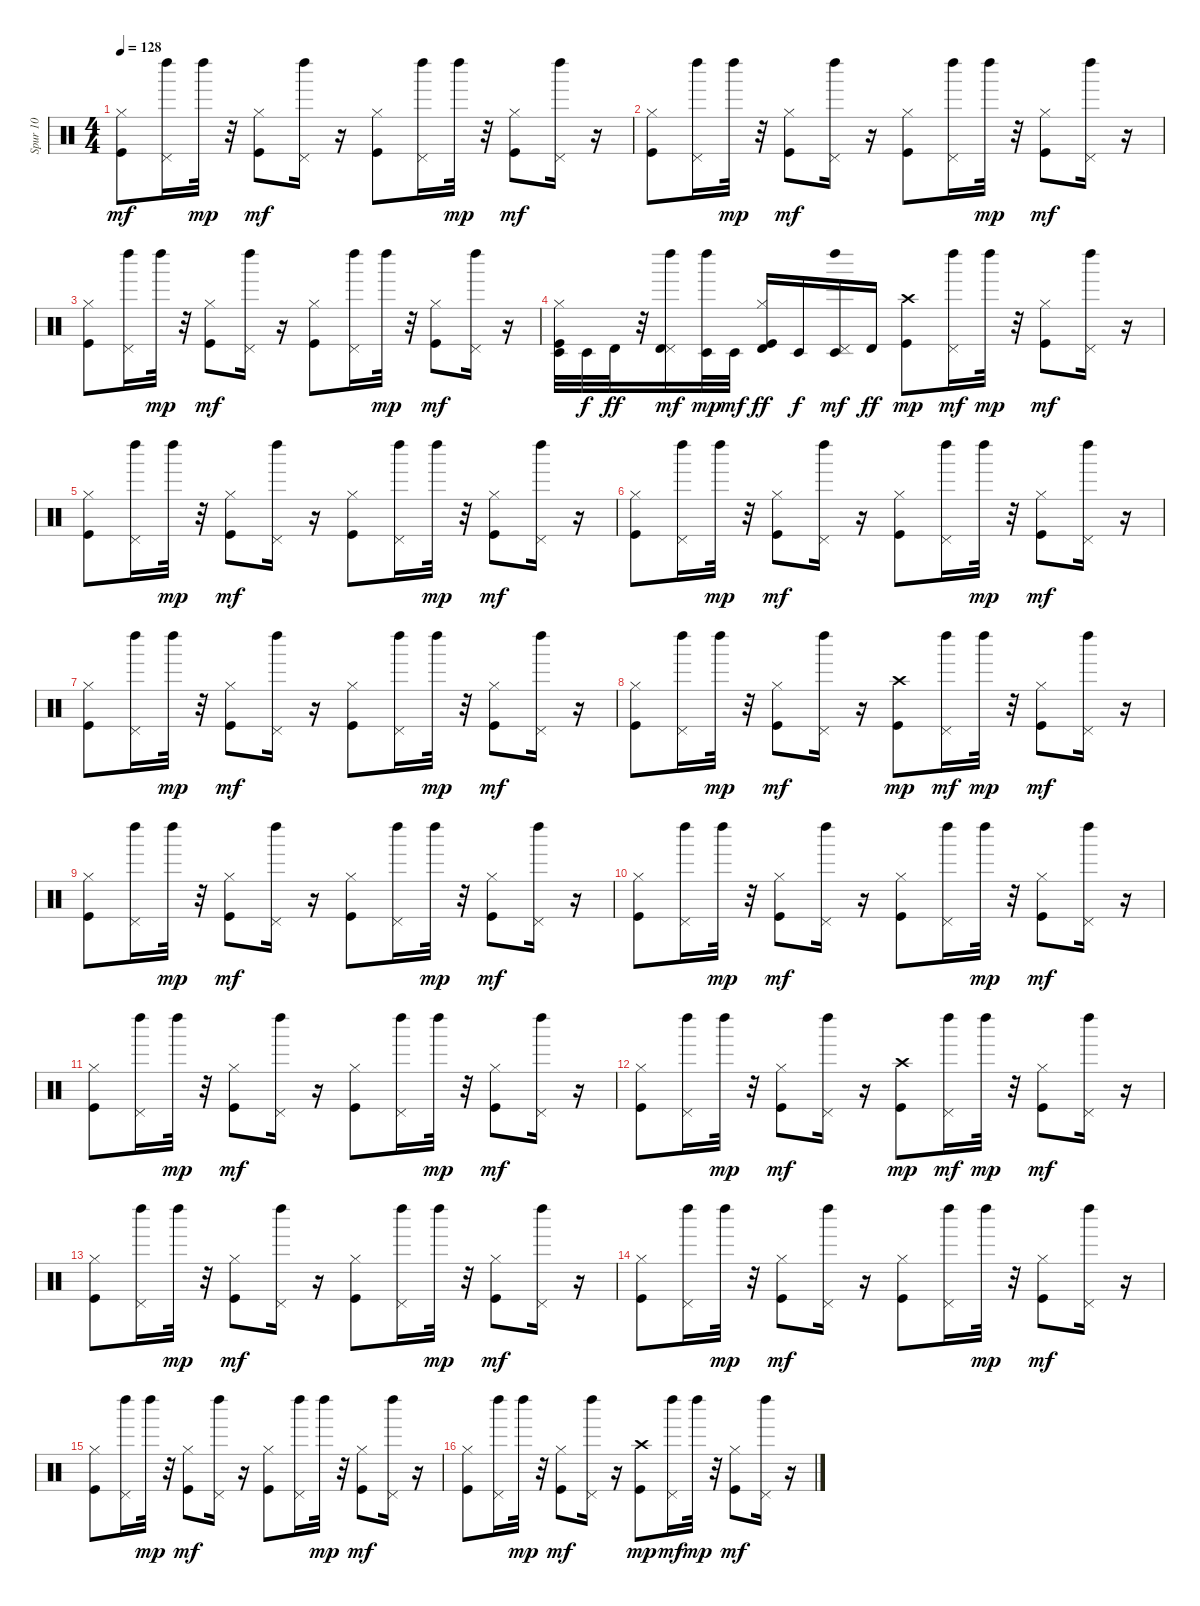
\track ("Spur 10" "Spur 10") {instrument percussion}
\staff {score}
\articulation defaults
\ts (4 4)
\tempo 128
\clef neutral
\ks c
("Kick (hit)" "Hi-Hat (closed)").8{dy mf} ("Pedal Hi-Hat (hit)" "Left Maraca (hit)").16 "Left Maraca (hit)".32{dy mp} r.32 ("Kick (hit)" "Hi-Hat (closed)").8{dy mf} ("Pedal Hi-Hat (hit)" "Left Maraca (hit)").16 r.16 ("Kick (hit)" "Hi-Hat (closed)").8 ("Pedal Hi-Hat (hit)" "Left Maraca (hit)").16 "Left Maraca (hit)".32{dy mp} r.32 ("Kick (hit)" "Hi-Hat (closed)").8{dy mf} ("Pedal Hi-Hat (hit)" "Left Maraca (hit)").16 r.16 |
("Kick (hit)" "Hi-Hat (closed)").8 ("Pedal Hi-Hat (hit)" "Left Maraca (hit)").16 "Left Maraca (hit)".32{dy mp} r.32 ("Kick (hit)" "Hi-Hat (closed)").8{dy mf} ("Pedal Hi-Hat (hit)" "Left Maraca (hit)").16 r.16 ("Kick (hit)" "Hi-Hat (closed)").8 ("Pedal Hi-Hat (hit)" "Left Maraca (hit)").16 "Left Maraca (hit)".32{dy mp} r.32 ("Kick (hit)" "Hi-Hat (closed)").8{dy mf} ("Pedal Hi-Hat (hit)" "Left Maraca (hit)").16 r.16 |
("Kick (hit)" "Hi-Hat (closed)").8 ("Pedal Hi-Hat (hit)" "Left Maraca (hit)").16 "Left Maraca (hit)".32{dy mp} r.32 ("Kick (hit)" "Hi-Hat (closed)").8{dy mf} ("Pedal Hi-Hat (hit)" "Left Maraca (hit)").16 r.16 ("Kick (hit)" "Hi-Hat (closed)").8 ("Pedal Hi-Hat (hit)" "Left Maraca (hit)").16 "Left Maraca (hit)".32{dy mp} r.32 ("Kick (hit)" "Hi-Hat (closed)").8{dy mf} ("Pedal Hi-Hat (hit)" "Left Maraca (hit)").16 r.16 |
("Kick (hit)" "Hi-Hat (closed)" "Timbale low (hit)").32 "Timbale low (hit)".32{dy f} "Timbale high (hit)".32{dy ff} r.32 ("Pedal Hi-Hat (hit)" "Timbale high (hit)" "Left Maraca (hit)").16{dy mf} ("Timbale low (hit)" "Left Maraca (hit)").32{dy mp} "Timbale low (hit)".32{dy mf} ("Kick (hit)" "Hi-Hat (closed)" "Timbale high (hit)").16{dy ff} "Timbale low (hit)".16{dy f} ("Pedal Hi-Hat (hit)" "Timbale low (hit)" "Left Maraca (hit)").16{dy mf} "Timbale high (hit)".16{dy ff} ("Kick (hit)" "Crash high (hit)").8{dy mp} ("Pedal Hi-Hat (hit)" "Left Maraca (hit)").16{dy mf} "Left Maraca (hit)".32{dy mp} r.32 ("Kick (hit)" "Hi-Hat (closed)").8{dy mf} ("Pedal Hi-Hat (hit)" "Left Maraca (hit)").16 r.16 |
("Kick (hit)" "Hi-Hat (closed)").8 ("Pedal Hi-Hat (hit)" "Left Maraca (hit)").16 "Left Maraca (hit)".32{dy mp} r.32 ("Kick (hit)" "Hi-Hat (closed)").8{dy mf} ("Pedal Hi-Hat (hit)" "Left Maraca (hit)").16 r.16 ("Kick (hit)" "Hi-Hat (closed)").8 ("Pedal Hi-Hat (hit)" "Left Maraca (hit)").16 "Left Maraca (hit)".32{dy mp} r.32 ("Kick (hit)" "Hi-Hat (closed)").8{dy mf} ("Pedal Hi-Hat (hit)" "Left Maraca (hit)").16 r.16 |
("Kick (hit)" "Hi-Hat (closed)").8 ("Pedal Hi-Hat (hit)" "Left Maraca (hit)").16 "Left Maraca (hit)".32{dy mp} r.32 ("Kick (hit)" "Hi-Hat (closed)").8{dy mf} ("Pedal Hi-Hat (hit)" "Left Maraca (hit)").16 r.16 ("Kick (hit)" "Hi-Hat (closed)").8 ("Pedal Hi-Hat (hit)" "Left Maraca (hit)").16 "Left Maraca (hit)".32{dy mp} r.32 ("Kick (hit)" "Hi-Hat (closed)").8{dy mf} ("Pedal Hi-Hat (hit)" "Left Maraca (hit)").16 r.16 |
("Kick (hit)" "Hi-Hat (closed)").8 ("Pedal Hi-Hat (hit)" "Left Maraca (hit)").16 "Left Maraca (hit)".32{dy mp} r.32 ("Kick (hit)" "Hi-Hat (closed)").8{dy mf} ("Pedal Hi-Hat (hit)" "Left Maraca (hit)").16 r.16 ("Kick (hit)" "Hi-Hat (closed)").8 ("Pedal Hi-Hat (hit)" "Left Maraca (hit)").16 "Left Maraca (hit)".32{dy mp} r.32 ("Kick (hit)" "Hi-Hat (closed)").8{dy mf} ("Pedal Hi-Hat (hit)" "Left Maraca (hit)").16 r.16 |
("Kick (hit)" "Hi-Hat (closed)").8 ("Pedal Hi-Hat (hit)" "Left Maraca (hit)").16 "Left Maraca (hit)".32{dy mp} r.32 ("Kick (hit)" "Hi-Hat (closed)").8{dy mf} ("Pedal Hi-Hat (hit)" "Left Maraca (hit)").16 r.16 ("Kick (hit)" "Crash high (hit)").8{dy mp} ("Pedal Hi-Hat (hit)" "Left Maraca (hit)").16{dy mf} "Left Maraca (hit)".32{dy mp} r.32 ("Kick (hit)" "Hi-Hat (closed)").8{dy mf} ("Pedal Hi-Hat (hit)" "Left Maraca (hit)").16 r.16 |
("Kick (hit)" "Hi-Hat (closed)").8 ("Pedal Hi-Hat (hit)" "Left Maraca (hit)").16 "Left Maraca (hit)".32{dy mp} r.32 ("Kick (hit)" "Hi-Hat (closed)").8{dy mf} ("Pedal Hi-Hat (hit)" "Left Maraca (hit)").16 r.16 ("Kick (hit)" "Hi-Hat (closed)").8 ("Pedal Hi-Hat (hit)" "Left Maraca (hit)").16 "Left Maraca (hit)".32{dy mp} r.32 ("Kick (hit)" "Hi-Hat (closed)").8{dy mf} ("Pedal Hi-Hat (hit)" "Left Maraca (hit)").16 r.16 |
("Kick (hit)" "Hi-Hat (closed)").8 ("Pedal Hi-Hat (hit)" "Left Maraca (hit)").16 "Left Maraca (hit)".32{dy mp} r.32 ("Kick (hit)" "Hi-Hat (closed)").8{dy mf} ("Pedal Hi-Hat (hit)" "Left Maraca (hit)").16 r.16 ("Kick (hit)" "Hi-Hat (closed)").8 ("Pedal Hi-Hat (hit)" "Left Maraca (hit)").16 "Left Maraca (hit)".32{dy mp} r.32 ("Kick (hit)" "Hi-Hat (closed)").8{dy mf} ("Pedal Hi-Hat (hit)" "Left Maraca (hit)").16 r.16 |
("Kick (hit)" "Hi-Hat (closed)").8 ("Pedal Hi-Hat (hit)" "Left Maraca (hit)").16 "Left Maraca (hit)".32{dy mp} r.32 ("Kick (hit)" "Hi-Hat (closed)").8{dy mf} ("Pedal Hi-Hat (hit)" "Left Maraca (hit)").16 r.16 ("Kick (hit)" "Hi-Hat (closed)").8 ("Pedal Hi-Hat (hit)" "Left Maraca (hit)").16 "Left Maraca (hit)".32{dy mp} r.32 ("Kick (hit)" "Hi-Hat (closed)").8{dy mf} ("Pedal Hi-Hat (hit)" "Left Maraca (hit)").16 r.16 |
("Kick (hit)" "Hi-Hat (closed)").8 ("Pedal Hi-Hat (hit)" "Left Maraca (hit)").16 "Left Maraca (hit)".32{dy mp} r.32 ("Kick (hit)" "Hi-Hat (closed)").8{dy mf} ("Pedal Hi-Hat (hit)" "Left Maraca (hit)").16 r.16 ("Kick (hit)" "Crash high (hit)").8{dy mp} ("Pedal Hi-Hat (hit)" "Left Maraca (hit)").16{dy mf} "Left Maraca (hit)".32{dy mp} r.32 ("Kick (hit)" "Hi-Hat (closed)").8{dy mf} ("Pedal Hi-Hat (hit)" "Left Maraca (hit)").16 r.16 |
("Kick (hit)" "Hi-Hat (closed)").8 ("Pedal Hi-Hat (hit)" "Left Maraca (hit)").16 "Left Maraca (hit)".32{dy mp} r.32 ("Kick (hit)" "Hi-Hat (closed)").8{dy mf} ("Pedal Hi-Hat (hit)" "Left Maraca (hit)").16 r.16 ("Kick (hit)" "Hi-Hat (closed)").8 ("Pedal Hi-Hat (hit)" "Left Maraca (hit)").16 "Left Maraca (hit)".32{dy mp} r.32 ("Kick (hit)" "Hi-Hat (closed)").8{dy mf} ("Pedal Hi-Hat (hit)" "Left Maraca (hit)").16 r.16 |
("Kick (hit)" "Hi-Hat (closed)").8 ("Pedal Hi-Hat (hit)" "Left Maraca (hit)").16 "Left Maraca (hit)".32{dy mp} r.32 ("Kick (hit)" "Hi-Hat (closed)").8{dy mf} ("Pedal Hi-Hat (hit)" "Left Maraca (hit)").16 r.16 ("Kick (hit)" "Hi-Hat (closed)").8 ("Pedal Hi-Hat (hit)" "Left Maraca (hit)").16 "Left Maraca (hit)".32{dy mp} r.32 ("Kick (hit)" "Hi-Hat (closed)").8{dy mf} ("Pedal Hi-Hat (hit)" "Left Maraca (hit)").16 r.16 |
("Kick (hit)" "Hi-Hat (closed)").8 ("Pedal Hi-Hat (hit)" "Left Maraca (hit)").16 "Left Maraca (hit)".32{dy mp} r.32 ("Kick (hit)" "Hi-Hat (closed)").8{dy mf} ("Pedal Hi-Hat (hit)" "Left Maraca (hit)").16 r.16 ("Kick (hit)" "Hi-Hat (closed)").8 ("Pedal Hi-Hat (hit)" "Left Maraca (hit)").16 "Left Maraca (hit)".32{dy mp} r.32 ("Kick (hit)" "Hi-Hat (closed)").8{dy mf} ("Pedal Hi-Hat (hit)" "Left Maraca (hit)").16 r.16 |
("Kick (hit)" "Hi-Hat (closed)").8 ("Pedal Hi-Hat (hit)" "Left Maraca (hit)").16 "Left Maraca (hit)".32{dy mp} r.32 ("Kick (hit)" "Hi-Hat (closed)").8{dy mf} ("Pedal Hi-Hat (hit)" "Left Maraca (hit)").16 r.16 ("Kick (hit)" "Crash high (hit)").8{dy mp} ("Pedal Hi-Hat (hit)" "Left Maraca (hit)").16{dy mf} "Left Maraca (hit)".32{dy mp} r.32 ("Kick (hit)" "Hi-Hat (closed)").8{dy mf} ("Pedal Hi-Hat (hit)" "Left Maraca (hit)").16 r.16
